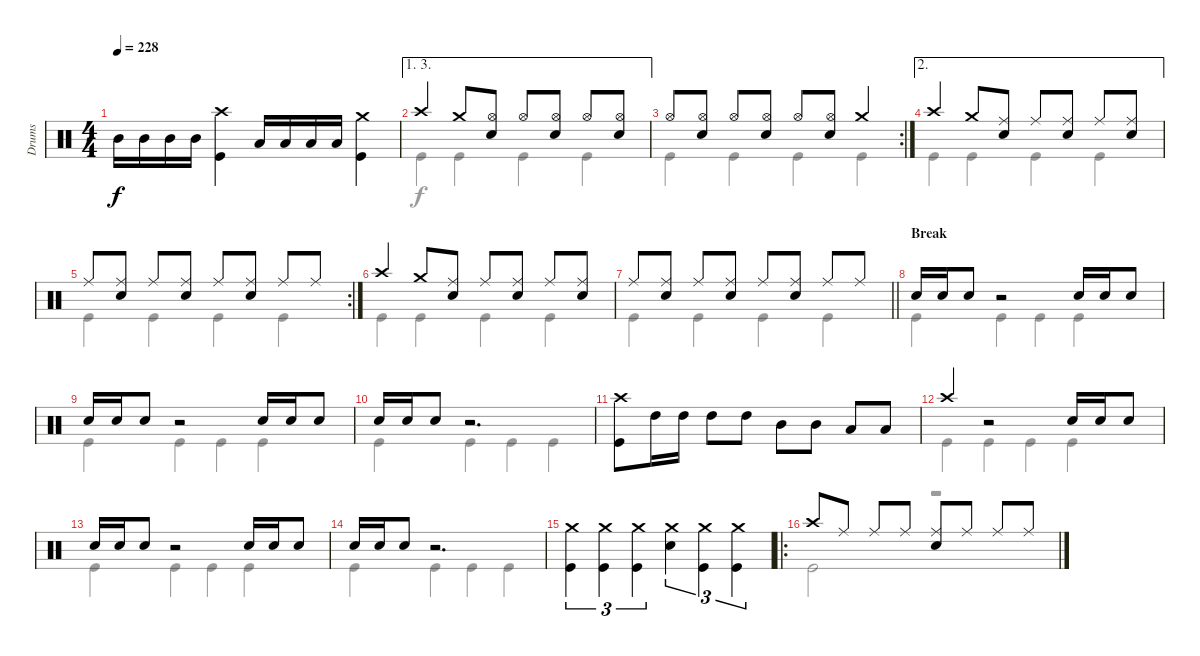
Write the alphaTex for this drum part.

\track ("Drums" "Drums") {instrument percussion}
\staff {score}
\articulation defaults
\voice
\ts (4 4)
\tempo 228
\clef neutral
\ks c "Mid Tom (hit)".16{dy f} "Mid Tom (hit)".16 "Mid Tom (hit)".16 "Mid Tom (hit)".16
("Crash high (hit)" "Kick (hit)").4 "Low Floor Tom (hit)".16 "Low Floor Tom (hit)".16 "Low Floor Tom (hit)".16 "Low Floor Tom (hit)".16 ("Crash medium (hit)" "Kick (hit)").4 |
\ae (1 3)
"Crash high (hit)".4 "Crash medium (hit)".8 ("Hi-Hat (open)" "Snare (hit) 2").8 "Hi-Hat (open)".8 ("Hi-Hat (open)" "Snare (hit) 2").8 "Hi-Hat (open)".8 ("Hi-Hat (open)" "Snare (hit) 2").8 |
\rc 2 "Hi-Hat (open)".8
("Hi-Hat (open)" "Snare (hit) 2").8 "Hi-Hat (open)".8 ("Hi-Hat (open)" "Snare (hit) 2").8 "Hi-Hat (open)".8 ("Hi-Hat (open)" "Snare (hit) 2").8 "Crash medium (hit)".4 |
\ae 2 "Crash high (hit)".4 "Crash medium (hit)".8
("Ride (middle)" "Snare (hit) 2").8 "Ride (middle)".8 ("Ride (middle)" "Snare (hit) 2").8 "Ride (middle)".8 ("Ride (middle)" "Snare (hit) 2").8 |
\rc 2 "Ride (middle)".8
("Ride (middle)" "Snare (hit) 2").8 "Ride (middle)".8 ("Ride (middle)" "Snare (hit) 2").8 "Ride (middle)".8 ("Ride (middle)" "Snare (hit) 2").8 "Ride (middle)".8 "Ride (middle)".8 |
"Crash high (hit)".4 "Crash medium (hit)".8 ("Ride (middle)" "Snare (hit) 2").8 "Ride (middle)".8 ("Ride (middle)" "Snare (hit) 2").8 "Ride (middle)".8 ("Ride (middle)" "Snare (hit) 2").8 |
\barLineRight lightlight "Ride (middle)".8
("Ride (middle)" "Snare (hit) 2").8 "Ride (middle)".8 ("Ride (middle)" "Snare (hit) 2").8 "Ride (middle)".8 ("Ride (middle)" "Snare (hit) 2").8 "Ride (middle)".8 "Ride (middle)".8 |
\section ("" "Break")
"Snare (hit) 2".16 "Snare (hit) 2".16 "Snare (hit) 2".8 r.2 "Snare (hit) 2".16 "Snare (hit) 2".16 "Snare (hit) 2".8 |
"Snare (hit) 2".16 "Snare (hit) 2".16 "Snare (hit) 2".8 r.2 "Snare (hit) 2".16 "Snare (hit) 2".16 "Snare (hit) 2".8 |
"Snare (hit) 2".16 "Snare (hit) 2".16 "Snare (hit) 2".8 r.2{d} |
("Crash high (hit)" "Kick (hit)").8 "High Tom (hit)".16 "High Tom (hit)".16 "High Tom (hit)".8 "High Tom (hit)".8 "Mid Tom (hit)".8 "Mid Tom (hit)".8 "Low Floor Tom (hit)".8 "Low Floor Tom (hit)".8 |
"Crash high (hit)".4 r.2 "Snare (hit) 2".16 "Snare (hit) 2".16 "Snare (hit) 2".8 |
"Snare (hit) 2".16 "Snare (hit) 2".16 "Snare (hit) 2".8 r.2 "Snare (hit) 2".16 "Snare (hit) 2".16 "Snare (hit) 2".8 |
"Snare (hit) 2".16 "Snare (hit) 2".16 "Snare (hit) 2".8 r.2{d} |
("Crash medium (hit)" "Kick (hit)").4{tu (3 2)} ("Crash medium (hit)" "Kick (hit)").4{tu (3 2)} ("Crash medium (hit)" "Kick (hit)").4{tu (3 2)} ("Crash medium (hit)" "Snare (hit) 2").4{tu (3 2)} ("Crash medium (hit)" "Kick (hit)").4{tu (3 2)} ("Crash medium (hit)" "Kick (hit)").4{tu (3 2)} |
\ro "Crash high (hit)".8 "Ride (middle)".8 "Ride (middle)".8 "Ride (middle)".8
("Ride (middle)" "Snare (hit) 2").8 "Ride (middle)".8 "Ride (middle)".8 "Ride (middle)".8
\voice
\clef neutral
\ottava regular
\simile none
\ks c
|
"Kick (hit)".4 "Kick (hit)".4 "Kick (hit)".4 "Kick (hit)".4 |
"Kick (hit)".4 "Kick (hit)".4 "Kick (hit)".4 "Kick (hit)".4 |
"Kick (hit)".4 "Kick (hit)".4 "Kick (hit)".4 "Kick (hit)".4 |
"Kick (hit)".4 "Kick (hit)".4 "Kick (hit)".4 "Kick (hit)".4 |
"Kick (hit)".4 "Kick (hit)".4 "Kick (hit)".4 "Kick (hit)".4 |
\barLineRight lightlight "Kick (hit)".4 "Kick (hit)".4 "Kick (hit)".4 "Kick (hit)".4
|
"Kick (hit)".4 "Kick (hit)".4 "Kick (hit)".4 "Kick (hit)".4 |
"Kick (hit)".4 "Kick (hit)".4 "Kick (hit)".4 "Kick (hit)".4 |
"Kick (hit)".4 "Kick (hit)".4 "Kick (hit)".4 "Kick (hit)".4 |
|
"Kick (hit)".4 "Kick (hit)".4 "Kick (hit)".4 "Kick (hit)".4 |
"Kick (hit)".4 "Kick (hit)".4 "Kick (hit)".4 "Kick (hit)".4 |
"Kick (hit)".4 "Kick (hit)".4 "Kick (hit)".4 "Kick (hit)".4 |
|
"Kick (hit)".2 r.2
